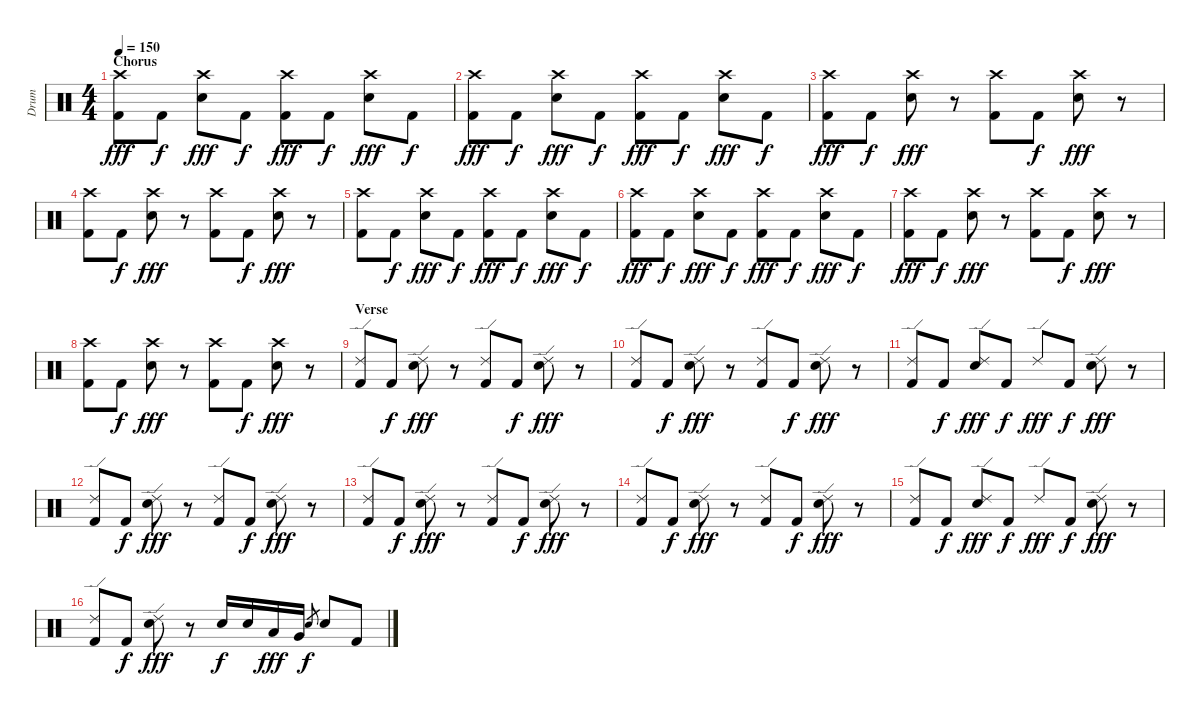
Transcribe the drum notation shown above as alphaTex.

\track ("Drum" "Drum") {instrument percussion}
\staff {score}
\articulation defaults
\ts (4 4)
\section ("" "Chorus")
\tempo 150
\clef neutral
\ks c
("Crash high (hit)" "Kick (hit) 2").8{dy fff} "Kick (hit) 2".8{dy f} ("Crash high (hit)" "Electric Snare (hit)").8{dy fff} "Kick (hit) 2".8{dy f} ("Crash high (hit)" "Kick (hit) 2").8{dy fff} "Kick (hit) 2".8{dy f} ("Crash high (hit)" "Electric Snare (hit)").8{dy fff} "Kick (hit) 2".8{dy f} |
("Crash high (hit)" "Kick (hit) 2").8{dy fff} "Kick (hit) 2".8{dy f} ("Crash high (hit)" "Electric Snare (hit)").8{dy fff} "Kick (hit) 2".8{dy f} ("Crash high (hit)" "Kick (hit) 2").8{dy fff} "Kick (hit) 2".8{dy f} ("Crash high (hit)" "Electric Snare (hit)").8{dy fff} "Kick (hit) 2".8{dy f} |
("Crash high (hit)" "Kick (hit) 2").8{dy fff} "Kick (hit) 2".8{dy f} ("Crash high (hit)" "Electric Snare (hit)").8{dy fff} r.8 ("Crash high (hit)" "Kick (hit) 2").8 "Kick (hit) 2".8{dy f} ("Crash high (hit)" "Electric Snare (hit)").8{dy fff} r.8 |
("Crash high (hit)" "Kick (hit) 2").8 "Kick (hit) 2".8{dy f} ("Crash high (hit)" "Electric Snare (hit)").8{dy fff} r.8 ("Crash high (hit)" "Kick (hit) 2").8 "Kick (hit) 2".8{dy f} ("Crash high (hit)" "Electric Snare (hit)").8{dy fff} r.8 |
("Crash high (hit)" "Kick (hit) 2").8 "Kick (hit) 2".8{dy f} ("Crash high (hit)" "Electric Snare (hit)").8{dy fff} "Kick (hit) 2".8{dy f} ("Crash high (hit)" "Kick (hit) 2").8{dy fff} "Kick (hit) 2".8{dy f} ("Crash high (hit)" "Electric Snare (hit)").8{dy fff} "Kick (hit) 2".8{dy f} |
("Crash high (hit)" "Kick (hit) 2").8{dy fff} "Kick (hit) 2".8{dy f} ("Crash high (hit)" "Electric Snare (hit)").8{dy fff} "Kick (hit) 2".8{dy f} ("Crash high (hit)" "Kick (hit) 2").8{dy fff} "Kick (hit) 2".8{dy f} ("Crash high (hit)" "Electric Snare (hit)").8{dy fff} "Kick (hit) 2".8{dy f} |
("Crash high (hit)" "Kick (hit) 2").8{dy fff} "Kick (hit) 2".8{dy f} ("Crash high (hit)" "Electric Snare (hit)").8{dy fff} r.8 ("Crash high (hit)" "Kick (hit) 2").8 "Kick (hit) 2".8{dy f} ("Crash high (hit)" "Electric Snare (hit)").8{dy fff} r.8 |
("Crash high (hit)" "Kick (hit) 2").8 "Kick (hit) 2".8{dy f} ("Crash high (hit)" "Electric Snare (hit)").8{dy fff} r.8 ("Crash high (hit)" "Kick (hit) 2").8 "Kick (hit) 2".8{dy f} ("Crash high (hit)" "Electric Snare (hit)").8{dy fff} r.8 |
\section ("" "Verse")
("Ride (edge) 2" "Kick (hit) 2").8 "Kick (hit) 2".8{dy f} ("Ride (edge) 2" "Electric Snare (hit)").8{dy fff} r.8 ("Ride (edge) 2" "Kick (hit) 2").8 "Kick (hit) 2".8{dy f} ("Ride (edge) 2" "Electric Snare (hit)").8{dy fff} r.8 |
("Ride (edge) 2" "Kick (hit) 2").8 "Kick (hit) 2".8{dy f} ("Ride (edge) 2" "Electric Snare (hit)").8{dy fff} r.8 ("Ride (edge) 2" "Kick (hit) 2").8 "Kick (hit) 2".8{dy f} ("Ride (edge) 2" "Electric Snare (hit)").8{dy fff} r.8 |
("Ride (edge) 2" "Kick (hit) 2").8 "Kick (hit) 2".8{dy f} ("Ride (edge) 2" "Electric Snare (hit)").8{dy fff} "Kick (hit) 2".8{dy f} "Ride (edge) 2".8{dy fff} "Kick (hit) 2".8{dy f} ("Ride (edge) 2" "Electric Snare (hit)").8{dy fff} r.8 |
("Ride (edge) 2" "Kick (hit) 2").8 "Kick (hit) 2".8{dy f} ("Ride (edge) 2" "Electric Snare (hit)").8{dy fff} r.8 ("Ride (edge) 2" "Kick (hit) 2").8 "Kick (hit) 2".8{dy f} ("Ride (edge) 2" "Electric Snare (hit)").8{dy fff} r.8 |
("Ride (edge) 2" "Kick (hit) 2").8 "Kick (hit) 2".8{dy f} ("Ride (edge) 2" "Electric Snare (hit)").8{dy fff} r.8 ("Ride (edge) 2" "Kick (hit) 2").8 "Kick (hit) 2".8{dy f} ("Ride (edge) 2" "Electric Snare (hit)").8{dy fff} r.8 |
("Ride (edge) 2" "Kick (hit) 2").8 "Kick (hit) 2".8{dy f} ("Ride (edge) 2" "Electric Snare (hit)").8{dy fff} r.8 ("Ride (edge) 2" "Kick (hit) 2").8 "Kick (hit) 2".8{dy f} ("Ride (edge) 2" "Electric Snare (hit)").8{dy fff} r.8 |
("Ride (edge) 2" "Kick (hit) 2").8 "Kick (hit) 2".8{dy f} ("Ride (edge) 2" "Electric Snare (hit)").8{dy fff} "Kick (hit) 2".8{dy f} "Ride (edge) 2".8{dy fff} "Kick (hit) 2".8{dy f} ("Ride (edge) 2" "Electric Snare (hit)").8{dy fff} r.8 |
("Ride (edge) 2" "Kick (hit) 2").8 "Kick (hit) 2".8{dy f} ("Ride (edge) 2" "Electric Snare (hit)").8{dy fff} r.8 "Electric Snare (hit)".16{dy f} "Electric Snare (hit)".16 "Low Tom (hit)".16{dy fff} "Very Low Tom (hit)".16 "Electric Snare (hit)".8{gr dy f} "Electric Snare (hit)".8 "Kick (hit) 2".8
